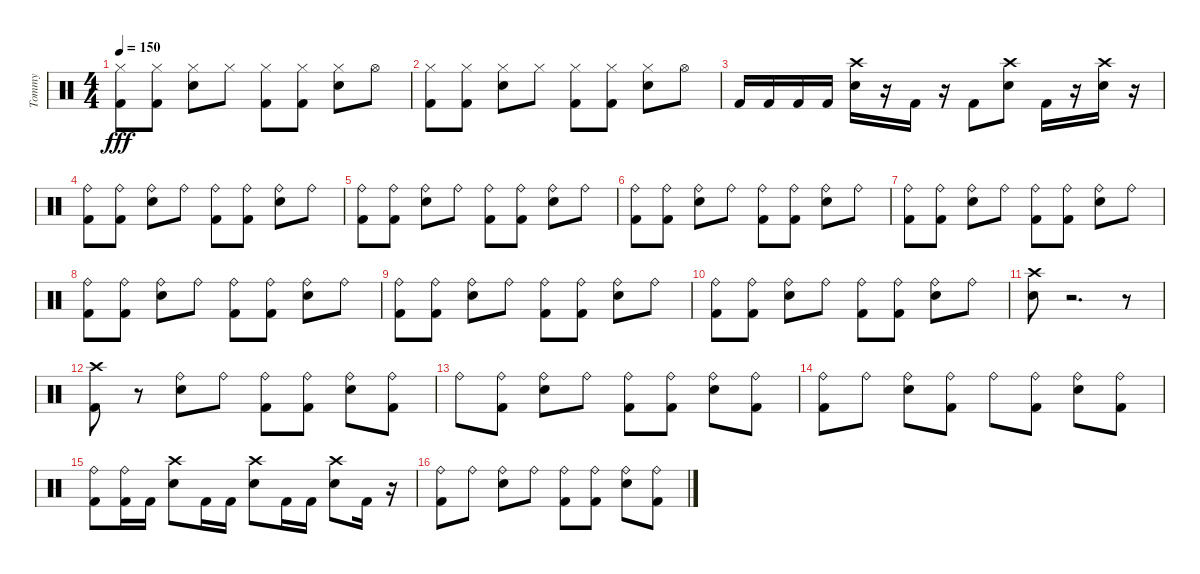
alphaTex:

\track ("Tommy" "Tommy") {instrument percussion}
\staff {score}
\articulation defaults
\ts (4 4)
\tempo 150
\clef neutral
\ks c
("Kick (hit) 2" "Hi-Hat (closed)").8{dy fff} ("Kick (hit) 2" "Hi-Hat (closed)").8 ("Snare (hit) 2" "Hi-Hat (closed)").8 "Hi-Hat (closed)".8 ("Kick (hit) 2" "Hi-Hat (closed)").8 ("Kick (hit) 2" "Hi-Hat (closed)").8 ("Snare (hit) 2" "Hi-Hat (closed)").8 "Hi-Hat (open)".8 |
("Hi-Hat (closed)" "Kick (hit) 2").8 ("Kick (hit) 2" "Hi-Hat (closed)").8 ("Snare (hit) 2" "Hi-Hat (closed)").8 "Hi-Hat (closed)".8 ("Kick (hit) 2" "Hi-Hat (closed)").8 ("Kick (hit) 2" "Hi-Hat (closed)").8 ("Snare (hit) 2" "Hi-Hat (closed)").8 "Hi-Hat (open)".8 |
"Kick (hit) 2".16 "Kick (hit) 2".16 "Kick (hit) 2".16 "Kick (hit) 2".16 ("Snare (hit) 2" "Crash high (hit)").16 r.16 "Kick (hit) 2".16 r.16 "Kick (hit) 2".8 ("Snare (hit) 2" "Crash high (hit)").8 "Kick (hit) 2".16 r.16 ("Snare (hit) 2" "Crash high (hit)").16 r.16 |
("Ride (bell)" "Kick (hit) 2").8 ("Kick (hit) 2" "Ride (bell)").8 ("Snare (hit) 2" "Ride (bell)").8 "Ride (bell)".8 ("Kick (hit) 2" "Ride (bell)").8 ("Kick (hit) 2" "Ride (bell)").8 ("Snare (hit) 2" "Ride (bell)").8 "Ride (bell)".8 |
("Ride (bell)" "Kick (hit) 2").8 ("Kick (hit) 2" "Ride (bell)").8 ("Snare (hit) 2" "Ride (bell)").8 "Ride (bell)".8 ("Kick (hit) 2" "Ride (bell)").8 ("Kick (hit) 2" "Ride (bell)").8 ("Snare (hit) 2" "Ride (bell)").8 "Ride (bell)".8 |
("Ride (bell)" "Kick (hit) 2").8 ("Kick (hit) 2" "Ride (bell)").8 ("Snare (hit) 2" "Ride (bell)").8 "Ride (bell)".8 ("Kick (hit) 2" "Ride (bell)").8 ("Kick (hit) 2" "Ride (bell)").8 ("Snare (hit) 2" "Ride (bell)").8 "Ride (bell)".8 |
("Ride (bell)" "Kick (hit) 2").8 ("Kick (hit) 2" "Ride (bell)").8 ("Snare (hit) 2" "Ride (bell)").8 "Ride (bell)".8 ("Kick (hit) 2" "Ride (bell)").8 ("Kick (hit) 2" "Ride (bell)").8 ("Snare (hit) 2" "Ride (bell)").8 "Ride (bell)".8 |
("Ride (bell)" "Kick (hit) 2").8 ("Kick (hit) 2" "Ride (bell)").8 ("Snare (hit) 2" "Ride (bell)").8 "Ride (bell)".8 ("Kick (hit) 2" "Ride (bell)").8 ("Kick (hit) 2" "Ride (bell)").8 ("Snare (hit) 2" "Ride (bell)").8 "Ride (bell)".8 |
("Kick (hit) 2" "Ride (bell)").8 ("Kick (hit) 2" "Ride (bell)").8 ("Snare (hit) 2" "Ride (bell)").8 "Ride (bell)".8 ("Kick (hit) 2" "Ride (bell)").8 ("Kick (hit) 2" "Ride (bell)").8 ("Snare (hit) 2" "Ride (bell)").8 "Ride (bell)".8 |
("Kick (hit) 2" "Ride (bell)").8 ("Kick (hit) 2" "Ride (bell)").8 ("Snare (hit) 2" "Ride (bell)").8 "Ride (bell)".8 ("Kick (hit) 2" "Ride (bell)").8 ("Kick (hit) 2" "Ride (bell)").8 ("Snare (hit) 2" "Ride (bell)").8 "Ride (bell)".8 |
("Snare (hit) 2" "Crash high (hit)").8 r.2{d} r.8 |
("Kick (hit) 2" "Crash high (hit)").8 r.8 ("Ride (bell)" "Snare (hit) 2").8 "Ride (bell)".8 ("Ride (bell)" "Kick (hit) 2").8 ("Ride (bell)" "Kick (hit) 2").8 ("Ride (bell)" "Snare (hit) 2").8 ("Ride (bell)" "Kick (hit) 2").8 |
"Ride (bell)".8 ("Ride (bell)" "Kick (hit) 2").8 ("Ride (bell)" "Snare (hit) 2").8 "Ride (bell)".8 ("Ride (bell)" "Kick (hit) 2").8 ("Ride (bell)" "Kick (hit) 2").8 ("Ride (bell)" "Snare (hit) 2").8 ("Ride (bell)" "Kick (hit) 2").8 |
("Ride (bell)" "Kick (hit) 2").8 "Ride (bell)".8 ("Ride (bell)" "Snare (hit) 2").8 ("Ride (bell)" "Kick (hit) 2").8 "Ride (bell)".8 ("Ride (bell)" "Kick (hit) 2").8 ("Ride (bell)" "Snare (hit) 2").8 ("Ride (bell)" "Kick (hit) 2").8 |
("Ride (bell)" "Kick (hit) 2").8 ("Ride (bell)" "Kick (hit) 2").16 "Kick (hit) 2".16 ("Snare (hit) 2" "Crash high (hit)").8 "Kick (hit) 2".16 "Kick (hit) 2".16 ("Snare (hit) 2" "Crash high (hit)").8 "Kick (hit) 2".16 "Kick (hit) 2".16 ("Snare (hit) 2" "Crash high (hit)").8 "Kick (hit) 2".16 r.16 |
("Ride (bell)" "Kick (hit) 2").8 "Ride (bell)".8 ("Ride (bell)" "Snare (hit) 2").8 "Ride (bell)".8 ("Ride (bell)" "Kick (hit) 2").8 ("Ride (bell)" "Kick (hit) 2").8 ("Ride (bell)" "Snare (hit) 2").8 ("Ride (bell)" "Kick (hit) 2").8
